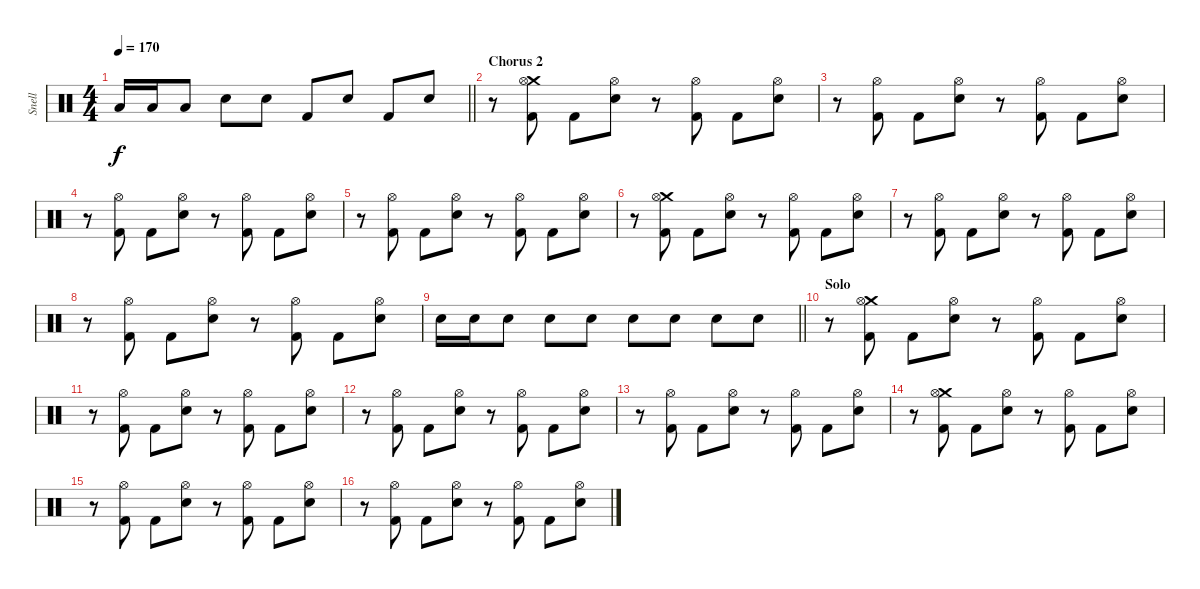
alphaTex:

\track ("Snell" "Snell") {instrument percussion}
\staff {score}
\articulation defaults
\ts (4 4)
\tempo 170
\clef neutral
\barLineRight lightlight
\ks c "Low Tom (hit)".16{dy f} "Low Tom (hit)".16 "Low Tom (hit)".8 "Electric Snare (hit)".8 "Electric Snare (hit)".8 "Kick (hit) 2".8 "Electric Snare (hit)".8 "Kick (hit) 2".8 "Electric Snare (hit)".8
|
\section ("" "Chorus 2")
r.8 ("Crash medium (hit)" "Hi-Hat (open)" "Kick (hit) 2").8 "Kick (hit) 2".8 ("Hi-Hat (open)" "Electric Snare (hit)").8 r.8 ("Hi-Hat (open)" "Kick (hit) 2").8 "Kick (hit) 2".8 ("Hi-Hat (open)" "Electric Snare (hit)").8 |
r.8 ("Hi-Hat (open)" "Kick (hit) 2").8 "Kick (hit) 2".8 ("Hi-Hat (open)" "Electric Snare (hit)").8 r.8 ("Hi-Hat (open)" "Kick (hit) 2").8 "Kick (hit) 2".8 ("Hi-Hat (open)" "Electric Snare (hit)").8 |
r.8 ("Hi-Hat (open)" "Kick (hit) 2").8 "Kick (hit) 2".8 ("Hi-Hat (open)" "Electric Snare (hit)").8 r.8 ("Hi-Hat (open)" "Kick (hit) 2").8 "Kick (hit) 2".8 ("Hi-Hat (open)" "Electric Snare (hit)").8 |
r.8 ("Hi-Hat (open)" "Kick (hit) 2").8 "Kick (hit) 2".8 ("Hi-Hat (open)" "Electric Snare (hit)").8 r.8 ("Hi-Hat (open)" "Kick (hit) 2").8 "Kick (hit) 2".8 ("Hi-Hat (open)" "Electric Snare (hit)").8 |
r.8 ("Crash medium (hit)" "Hi-Hat (open)" "Kick (hit) 2").8 "Kick (hit) 2".8 ("Hi-Hat (open)" "Electric Snare (hit)").8 r.8 ("Hi-Hat (open)" "Kick (hit) 2").8 "Kick (hit) 2".8 ("Hi-Hat (open)" "Electric Snare (hit)").8 |
r.8 ("Hi-Hat (open)" "Kick (hit) 2").8 "Kick (hit) 2".8 ("Hi-Hat (open)" "Electric Snare (hit)").8 r.8 ("Hi-Hat (open)" "Kick (hit) 2").8 "Kick (hit) 2".8 ("Hi-Hat (open)" "Electric Snare (hit)").8 |
r.8 ("Hi-Hat (open)" "Kick (hit) 2").8 "Kick (hit) 2".8 ("Hi-Hat (open)" "Electric Snare (hit)").8 r.8 ("Hi-Hat (open)" "Kick (hit) 2").8 "Kick (hit) 2".8 ("Hi-Hat (open)" "Electric Snare (hit)").8 |
\barLineRight lightlight "Electric Snare (hit)".16 "Electric Snare (hit)".16 "Electric Snare (hit)".8 "Electric Snare (hit)".8 "Electric Snare (hit)".8 "Electric Snare (hit)".8 "Electric Snare (hit)".8 "Electric Snare (hit)".8 "Electric Snare (hit)".8
|
\section ("" "Solo")
r.8 ("Crash medium (hit)" "Hi-Hat (open)" "Kick (hit) 2").8 "Kick (hit) 2".8 ("Hi-Hat (open)" "Electric Snare (hit)").8 r.8 ("Hi-Hat (open)" "Kick (hit) 2").8 "Kick (hit) 2".8 ("Hi-Hat (open)" "Electric Snare (hit)").8 |
r.8 ("Hi-Hat (open)" "Kick (hit) 2").8 "Kick (hit) 2".8 ("Hi-Hat (open)" "Electric Snare (hit)").8 r.8 ("Hi-Hat (open)" "Kick (hit) 2").8 "Kick (hit) 2".8 ("Hi-Hat (open)" "Electric Snare (hit)").8 |
r.8 ("Hi-Hat (open)" "Kick (hit) 2").8 "Kick (hit) 2".8 ("Hi-Hat (open)" "Electric Snare (hit)").8 r.8 ("Hi-Hat (open)" "Kick (hit) 2").8 "Kick (hit) 2".8 ("Hi-Hat (open)" "Electric Snare (hit)").8 |
r.8 ("Hi-Hat (open)" "Kick (hit) 2").8 "Kick (hit) 2".8 ("Hi-Hat (open)" "Electric Snare (hit)").8 r.8 ("Hi-Hat (open)" "Kick (hit) 2").8 "Kick (hit) 2".8 ("Hi-Hat (open)" "Electric Snare (hit)").8 |
r.8 ("Crash medium (hit)" "Hi-Hat (open)" "Kick (hit) 2").8 "Kick (hit) 2".8 ("Hi-Hat (open)" "Electric Snare (hit)").8 r.8 ("Hi-Hat (open)" "Kick (hit) 2").8 "Kick (hit) 2".8 ("Hi-Hat (open)" "Electric Snare (hit)").8 |
r.8 ("Hi-Hat (open)" "Kick (hit) 2").8 "Kick (hit) 2".8 ("Hi-Hat (open)" "Electric Snare (hit)").8 r.8 ("Hi-Hat (open)" "Kick (hit) 2").8 "Kick (hit) 2".8 ("Hi-Hat (open)" "Electric Snare (hit)").8 |
r.8 ("Hi-Hat (open)" "Kick (hit) 2").8 "Kick (hit) 2".8 ("Hi-Hat (open)" "Electric Snare (hit)").8 r.8 ("Hi-Hat (open)" "Kick (hit) 2").8 "Kick (hit) 2".8 ("Hi-Hat (open)" "Electric Snare (hit)").8
